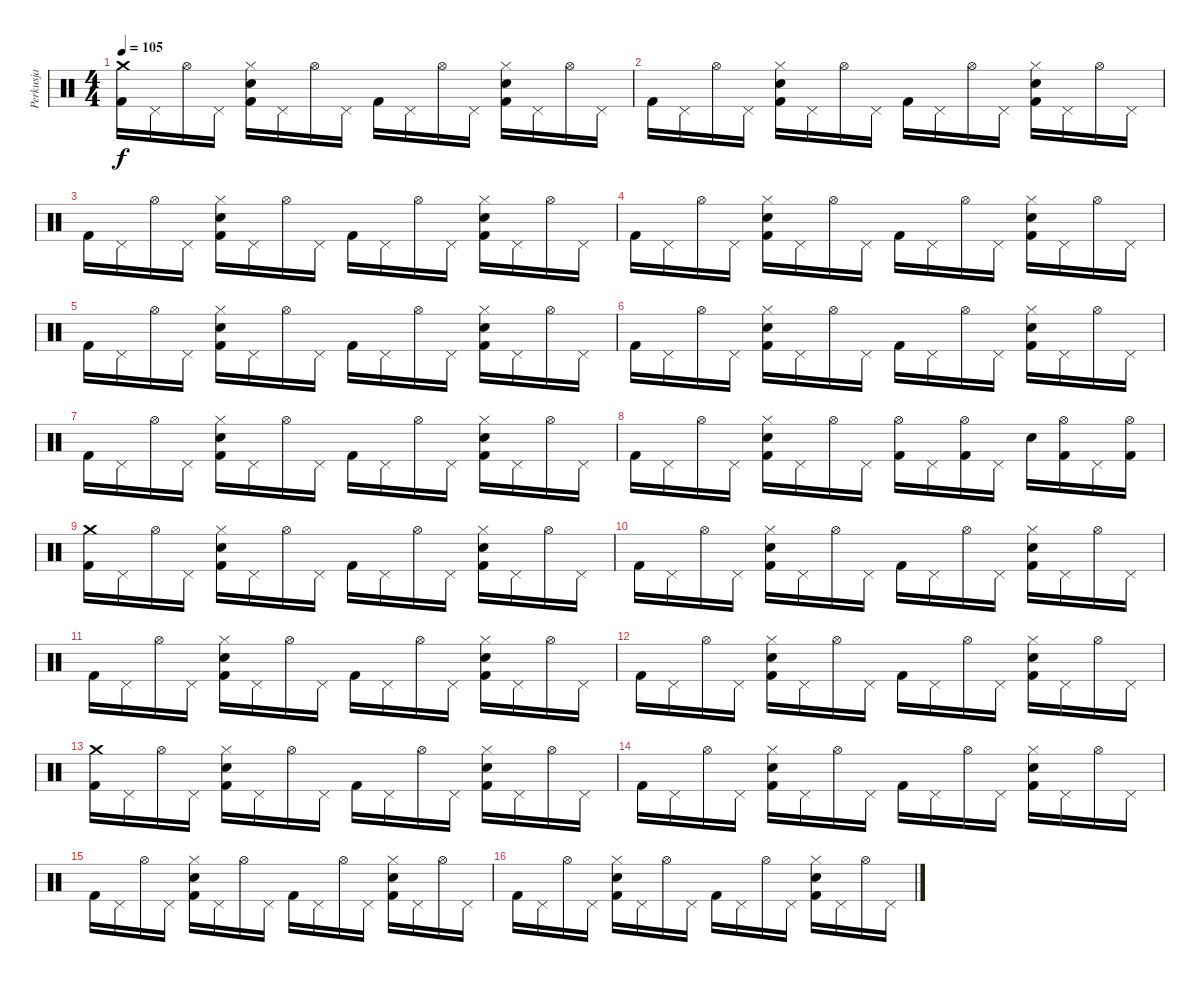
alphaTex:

\track ("Perkusja" "Perkusja") {instrument percussion}
\staff {score}
\articulation defaults
\ts (4 4)
\tempo 105
\clef neutral
\ks c
("Crash medium (hit)" "Kick (hit) 2").16{dy f} "Pedal Hi-Hat (hit)".16 "Hi-Hat (open)".16 "Pedal Hi-Hat (hit)".16 ("Hi-Hat (closed)" "Electric Snare (hit)" "Kick (hit) 2").16 "Pedal Hi-Hat (hit)".16 "Hi-Hat (open)".16 "Pedal Hi-Hat (hit)".16 "Kick (hit) 2".16 "Pedal Hi-Hat (hit)".16 "Hi-Hat (open)".16 "Pedal Hi-Hat (hit)".16 ("Hi-Hat (closed)" "Electric Snare (hit)" "Kick (hit) 2").16 "Pedal Hi-Hat (hit)".16 "Hi-Hat (open)".16 "Pedal Hi-Hat (hit)".16 |
"Kick (hit) 2".16 "Pedal Hi-Hat (hit)".16 "Hi-Hat (open)".16 "Pedal Hi-Hat (hit)".16 ("Hi-Hat (closed)" "Electric Snare (hit)" "Kick (hit) 2").16 "Pedal Hi-Hat (hit)".16 "Hi-Hat (open)".16 "Pedal Hi-Hat (hit)".16 "Kick (hit) 2".16 "Pedal Hi-Hat (hit)".16 "Hi-Hat (open)".16 "Pedal Hi-Hat (hit)".16 ("Hi-Hat (closed)" "Electric Snare (hit)" "Kick (hit) 2").16 "Pedal Hi-Hat (hit)".16 "Hi-Hat (open)".16 "Pedal Hi-Hat (hit)".16 |
"Kick (hit) 2".16 "Pedal Hi-Hat (hit)".16 "Hi-Hat (open)".16 "Pedal Hi-Hat (hit)".16 ("Hi-Hat (closed)" "Electric Snare (hit)" "Kick (hit) 2").16 "Pedal Hi-Hat (hit)".16 "Hi-Hat (open)".16 "Pedal Hi-Hat (hit)".16 "Kick (hit) 2".16 "Pedal Hi-Hat (hit)".16 "Hi-Hat (open)".16 "Pedal Hi-Hat (hit)".16 ("Hi-Hat (closed)" "Electric Snare (hit)" "Kick (hit) 2").16 "Pedal Hi-Hat (hit)".16 "Hi-Hat (open)".16 "Pedal Hi-Hat (hit)".16 |
"Kick (hit) 2".16 "Pedal Hi-Hat (hit)".16 "Hi-Hat (open)".16 "Pedal Hi-Hat (hit)".16 ("Hi-Hat (closed)" "Electric Snare (hit)" "Kick (hit) 2").16 "Pedal Hi-Hat (hit)".16 "Hi-Hat (open)".16 "Pedal Hi-Hat (hit)".16 "Kick (hit) 2".16 "Pedal Hi-Hat (hit)".16 "Hi-Hat (open)".16 "Pedal Hi-Hat (hit)".16 ("Hi-Hat (closed)" "Electric Snare (hit)" "Kick (hit) 2").16 "Pedal Hi-Hat (hit)".16 "Hi-Hat (open)".16 "Pedal Hi-Hat (hit)".16 |
"Kick (hit) 2".16 "Pedal Hi-Hat (hit)".16 "Hi-Hat (open)".16 "Pedal Hi-Hat (hit)".16 ("Hi-Hat (closed)" "Electric Snare (hit)" "Kick (hit) 2").16 "Pedal Hi-Hat (hit)".16 "Hi-Hat (open)".16 "Pedal Hi-Hat (hit)".16 "Kick (hit) 2".16 "Pedal Hi-Hat (hit)".16 "Hi-Hat (open)".16 "Pedal Hi-Hat (hit)".16 ("Hi-Hat (closed)" "Electric Snare (hit)" "Kick (hit) 2").16 "Pedal Hi-Hat (hit)".16 "Hi-Hat (open)".16 "Pedal Hi-Hat (hit)".16 |
"Kick (hit) 2".16 "Pedal Hi-Hat (hit)".16 "Hi-Hat (open)".16 "Pedal Hi-Hat (hit)".16 ("Hi-Hat (closed)" "Electric Snare (hit)" "Kick (hit) 2").16 "Pedal Hi-Hat (hit)".16 "Hi-Hat (open)".16 "Pedal Hi-Hat (hit)".16 "Kick (hit) 2".16 "Pedal Hi-Hat (hit)".16 "Hi-Hat (open)".16 "Pedal Hi-Hat (hit)".16 ("Hi-Hat (closed)" "Electric Snare (hit)" "Kick (hit) 2").16 "Pedal Hi-Hat (hit)".16 "Hi-Hat (open)".16 "Pedal Hi-Hat (hit)".16 |
"Kick (hit) 2".16 "Pedal Hi-Hat (hit)".16 "Hi-Hat (open)".16 "Pedal Hi-Hat (hit)".16 ("Hi-Hat (closed)" "Electric Snare (hit)" "Kick (hit) 2").16 "Pedal Hi-Hat (hit)".16 "Hi-Hat (open)".16 "Pedal Hi-Hat (hit)".16 "Kick (hit) 2".16 "Pedal Hi-Hat (hit)".16 "Hi-Hat (open)".16 "Pedal Hi-Hat (hit)".16 ("Hi-Hat (closed)" "Electric Snare (hit)" "Kick (hit) 2").16 "Pedal Hi-Hat (hit)".16 "Hi-Hat (open)".16 "Pedal Hi-Hat (hit)".16 |
"Kick (hit) 2".16 "Pedal Hi-Hat (hit)".16 "Hi-Hat (open)".16 "Pedal Hi-Hat (hit)".16 ("Hi-Hat (closed)" "Electric Snare (hit)" "Kick (hit) 2").16 "Pedal Hi-Hat (hit)".16 "Hi-Hat (open)".16 "Pedal Hi-Hat (hit)".16 ("Hi-Hat (open)" "Kick (hit) 2").16 "Pedal Hi-Hat (hit)".16 ("Hi-Hat (open)" "Kick (hit) 2").16 "Pedal Hi-Hat (hit)".16 "Electric Snare (hit)".16 ("Hi-Hat (open)" "Kick (hit) 2").16 "Pedal Hi-Hat (hit)".16 ("Hi-Hat (open)" "Kick (hit) 2").16 |
("Crash medium (hit)" "Kick (hit) 2").16 "Pedal Hi-Hat (hit)".16 "Hi-Hat (open)".16 "Pedal Hi-Hat (hit)".16 ("Hi-Hat (closed)" "Electric Snare (hit)" "Kick (hit) 2").16 "Pedal Hi-Hat (hit)".16 "Hi-Hat (open)".16 "Pedal Hi-Hat (hit)".16 "Kick (hit) 2".16 "Pedal Hi-Hat (hit)".16 "Hi-Hat (open)".16 "Pedal Hi-Hat (hit)".16 ("Hi-Hat (closed)" "Electric Snare (hit)" "Kick (hit) 2").16 "Pedal Hi-Hat (hit)".16 "Hi-Hat (open)".16 "Pedal Hi-Hat (hit)".16 |
"Kick (hit) 2".16 "Pedal Hi-Hat (hit)".16 "Hi-Hat (open)".16 "Pedal Hi-Hat (hit)".16 ("Hi-Hat (closed)" "Electric Snare (hit)" "Kick (hit) 2").16 "Pedal Hi-Hat (hit)".16 "Hi-Hat (open)".16 "Pedal Hi-Hat (hit)".16 "Kick (hit) 2".16 "Pedal Hi-Hat (hit)".16 "Hi-Hat (open)".16 "Pedal Hi-Hat (hit)".16 ("Hi-Hat (closed)" "Electric Snare (hit)" "Kick (hit) 2").16 "Pedal Hi-Hat (hit)".16 "Hi-Hat (open)".16 "Pedal Hi-Hat (hit)".16 |
"Kick (hit) 2".16 "Pedal Hi-Hat (hit)".16 "Hi-Hat (open)".16 "Pedal Hi-Hat (hit)".16 ("Hi-Hat (closed)" "Electric Snare (hit)" "Kick (hit) 2").16 "Pedal Hi-Hat (hit)".16 "Hi-Hat (open)".16 "Pedal Hi-Hat (hit)".16 "Kick (hit) 2".16 "Pedal Hi-Hat (hit)".16 "Hi-Hat (open)".16 "Pedal Hi-Hat (hit)".16 ("Hi-Hat (closed)" "Electric Snare (hit)" "Kick (hit) 2").16 "Pedal Hi-Hat (hit)".16 "Hi-Hat (open)".16 "Pedal Hi-Hat (hit)".16 |
"Kick (hit) 2".16 "Pedal Hi-Hat (hit)".16 "Hi-Hat (open)".16 "Pedal Hi-Hat (hit)".16 ("Hi-Hat (closed)" "Electric Snare (hit)" "Kick (hit) 2").16 "Pedal Hi-Hat (hit)".16 "Hi-Hat (open)".16 "Pedal Hi-Hat (hit)".16 "Kick (hit) 2".16 "Pedal Hi-Hat (hit)".16 "Hi-Hat (open)".16 "Pedal Hi-Hat (hit)".16 ("Hi-Hat (closed)" "Electric Snare (hit)" "Kick (hit) 2").16 "Pedal Hi-Hat (hit)".16 "Hi-Hat (open)".16 "Pedal Hi-Hat (hit)".16 |
("Crash medium (hit)" "Kick (hit) 2").16 "Pedal Hi-Hat (hit)".16 "Hi-Hat (open)".16 "Pedal Hi-Hat (hit)".16 ("Hi-Hat (closed)" "Electric Snare (hit)" "Kick (hit) 2").16 "Pedal Hi-Hat (hit)".16 "Hi-Hat (open)".16 "Pedal Hi-Hat (hit)".16 "Kick (hit) 2".16 "Pedal Hi-Hat (hit)".16 "Hi-Hat (open)".16 "Pedal Hi-Hat (hit)".16 ("Hi-Hat (closed)" "Electric Snare (hit)" "Kick (hit) 2").16 "Pedal Hi-Hat (hit)".16 "Hi-Hat (open)".16 "Pedal Hi-Hat (hit)".16 |
"Kick (hit) 2".16 "Pedal Hi-Hat (hit)".16 "Hi-Hat (open)".16 "Pedal Hi-Hat (hit)".16 ("Hi-Hat (closed)" "Electric Snare (hit)" "Kick (hit) 2").16 "Pedal Hi-Hat (hit)".16 "Hi-Hat (open)".16 "Pedal Hi-Hat (hit)".16 "Kick (hit) 2".16 "Pedal Hi-Hat (hit)".16 "Hi-Hat (open)".16 "Pedal Hi-Hat (hit)".16 ("Hi-Hat (closed)" "Electric Snare (hit)" "Kick (hit) 2").16 "Pedal Hi-Hat (hit)".16 "Hi-Hat (open)".16 "Pedal Hi-Hat (hit)".16 |
"Kick (hit) 2".16 "Pedal Hi-Hat (hit)".16 "Hi-Hat (open)".16 "Pedal Hi-Hat (hit)".16 ("Hi-Hat (closed)" "Electric Snare (hit)" "Kick (hit) 2").16 "Pedal Hi-Hat (hit)".16 "Hi-Hat (open)".16 "Pedal Hi-Hat (hit)".16 "Kick (hit) 2".16 "Pedal Hi-Hat (hit)".16 "Hi-Hat (open)".16 "Pedal Hi-Hat (hit)".16 ("Hi-Hat (closed)" "Electric Snare (hit)" "Kick (hit) 2").16 "Pedal Hi-Hat (hit)".16 "Hi-Hat (open)".16 "Pedal Hi-Hat (hit)".16 |
"Kick (hit) 2".16 "Pedal Hi-Hat (hit)".16 "Hi-Hat (open)".16 "Pedal Hi-Hat (hit)".16 ("Hi-Hat (closed)" "Electric Snare (hit)" "Kick (hit) 2").16 "Pedal Hi-Hat (hit)".16 "Hi-Hat (open)".16 "Pedal Hi-Hat (hit)".16 "Kick (hit) 2".16 "Pedal Hi-Hat (hit)".16 "Hi-Hat (open)".16 "Pedal Hi-Hat (hit)".16 ("Hi-Hat (closed)" "Electric Snare (hit)" "Kick (hit) 2").16 "Pedal Hi-Hat (hit)".16 "Hi-Hat (open)".16 "Pedal Hi-Hat (hit)".16
